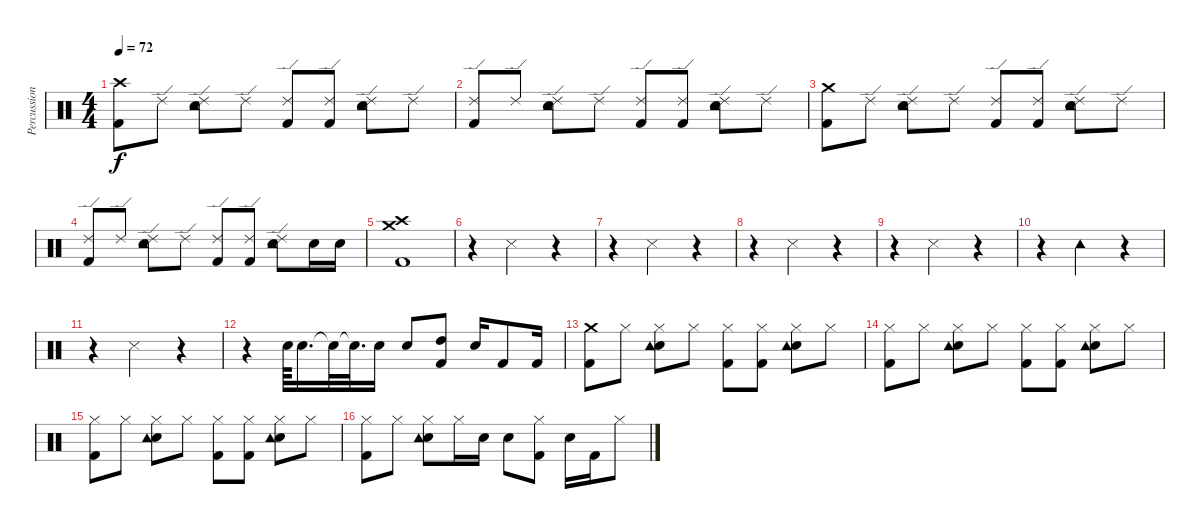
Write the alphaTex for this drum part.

\track ("Percussion" "Percussion") {instrument percussion}
\staff {score}
\articulation defaults
\ts (4 4)
\tempo 72
\clef neutral
\ks c
("Crash high (hit)" "Kick (hit) 2").8{dy f} "Ride (edge) 2".8 ("Ride (edge) 2" "Snare (hit) 2" "Tambourine (hit)").8 "Ride (edge) 2".8 ("Ride (edge) 2" "Kick (hit) 2").8 ("Ride (edge) 2" "Kick (hit) 2").8 ("Ride (edge) 2" "Snare (hit) 2" "Tambourine (hit)").8 "Ride (edge) 2".8 |
("Ride (edge) 2" "Kick (hit) 2").8 "Ride (edge) 2".8 ("Ride (edge) 2" "Snare (hit) 2" "Tambourine (hit)").8 "Ride (edge) 2".8 ("Ride (edge) 2" "Kick (hit) 2").8 ("Ride (edge) 2" "Kick (hit) 2").8 ("Ride (edge) 2" "Snare (hit) 2" "Tambourine (hit)").8 "Ride (edge) 2".8 |
("Crash medium (hit)" "Kick (hit) 2").8 "Ride (edge) 2".8 ("Ride (edge) 2" "Snare (hit) 2" "Tambourine (hit)").8 "Ride (edge) 2".8 ("Ride (edge) 2" "Kick (hit) 2").8 ("Ride (edge) 2" "Kick (hit) 2").8 ("Ride (edge) 2" "Snare (hit) 2" "Tambourine (hit)").8 "Ride (edge) 2".8 |
("Ride (edge) 2" "Kick (hit) 2").8 "Ride (edge) 2".8 ("Ride (edge) 2" "Snare (hit) 2" "Tambourine (hit)").8 "Ride (edge) 2".8 ("Ride (edge) 2" "Kick (hit) 2").8 ("Ride (edge) 2" "Kick (hit) 2").8 ("Ride (edge) 2" "Snare (hit) 2" "Tambourine (hit)").8 "Snare (hit) 2".16 "Snare (hit) 2".16 |
("Crash high (hit)" "Crash medium (hit)" "Kick (hit) 2").1 |
r.4 "Snare (side stick) 3".2 r.4 |
r.4 "Snare (side stick) 3".2 r.4 |
r.4 "Snare (side stick) 3".2 r.4 |
r.4 "Snare (side stick) 3".2 r.4 |
r.4 "Tambourine (hit)".2 r.4 |
r.4 "Snare (side stick) 3".2 r.4 |
r.4 "Snare (hit) 2".64 "Snare (hit) 2".16{d} "Snare (hit)"{t}.32 "Snare (hit)"{t}.32{d} "Snare (hit) 2".16 "Snare (hit) 2".8 ("High Tom (hit)" "Kick (hit) 2").8 "Snare (hit) 2".16 "Kick (hit) 2".8 "Kick (hit) 2".16 |
("Crash medium (hit)" "Kick (hit) 2").8 "Hi-Hat (closed)".8 ("Hi-Hat (closed)" "Snare (hit) 2" "Tambourine (hit)").8 "Hi-Hat (closed)".8 ("Hi-Hat (closed)" "Kick (hit) 2").8 ("Hi-Hat (closed)" "Kick (hit) 2").8 ("Hi-Hat (closed)" "Snare (hit) 2" "Tambourine (hit)").8 "Hi-Hat (closed)".8 |
("Hi-Hat (closed)" "Kick (hit) 2").8 "Hi-Hat (closed)".8 ("Hi-Hat (closed)" "Snare (hit) 2" "Tambourine (hit)").8 "Hi-Hat (closed)".8 ("Hi-Hat (closed)" "Kick (hit) 2").8 ("Hi-Hat (closed)" "Kick (hit) 2").8 ("Hi-Hat (closed)" "Snare (hit) 2" "Tambourine (hit)").8 "Hi-Hat (closed)".8 |
("Hi-Hat (closed)" "Kick (hit) 2").8 "Hi-Hat (closed)".8 ("Hi-Hat (closed)" "Snare (hit) 2" "Tambourine (hit)").8 "Hi-Hat (closed)".8 ("Hi-Hat (closed)" "Kick (hit) 2").8 ("Hi-Hat (closed)" "Kick (hit) 2").8 ("Hi-Hat (closed)" "Snare (hit) 2" "Tambourine (hit)").8 "Hi-Hat (closed)".8 |
("Hi-Hat (closed)" "Kick (hit) 2").8 "Hi-Hat (closed)".8 ("Hi-Hat (closed)" "Snare (hit) 2" "Tambourine (hit)").8 "Hi-Hat (closed)".16 "Snare (hit) 2".16 "Snare (hit) 2".8 ("Hi-Hat (closed)" "Kick (hit) 2").8 "Snare (hit) 2".16 "Kick (hit) 2".16 "Hi-Hat (closed)".8
